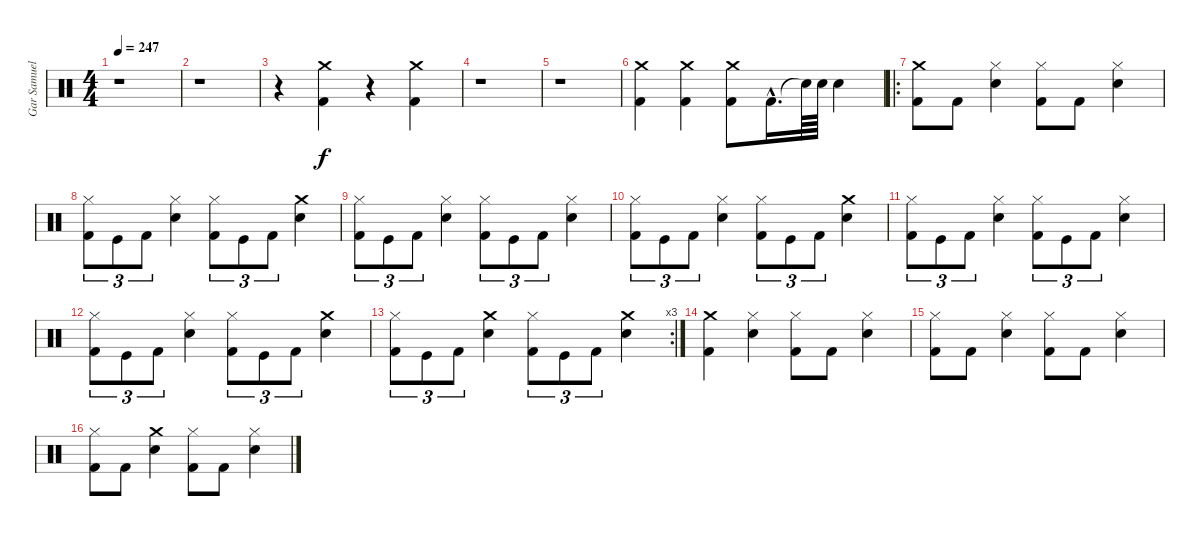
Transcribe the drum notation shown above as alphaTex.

\track ("Gar Samuelson (Drums)" "Gar Samuel") {instrument percussion}
\staff {score}
\articulation defaults
\ts (4 4)
\tempo 247
\clef neutral
\ks c
r.1{dy f} |
r.1 |
r.4 ("Kick (hit) 2" "Crash medium (hit)").4 r.4 ("Kick (hit) 2" "Crash medium (hit)").4 |
r.1 |
r.1 |
("Kick (hit) 2" "Crash medium (hit)").4 ("Kick (hit) 2" "Crash medium (hit)").4 ("Kick (hit) 2" "Crash medium (hit)").8 "Kick (hit) 2"{hac}.16{d} "Snare (hit)"{t}.64 "Snare (hit) 2".64 "Snare (hit) 2".4 |
\ro
("Crash medium (hit)" "Kick (hit) 2").8 "Kick (hit) 2".8 ("Hi-Hat (closed)" "Snare (hit) 2").4 ("Hi-Hat (closed)" "Kick (hit) 2").8 "Kick (hit) 2".8 ("Snare (hit) 2" "Hi-Hat (closed)").4 |
("Hi-Hat (closed)" "Kick (hit) 2").8{tu (3 2)} "Kick (hit)".8{tu (3 2)} "Kick (hit) 2".8{tu (3 2)} ("Snare (hit) 2" "Hi-Hat (closed)").4 ("Hi-Hat (closed)" "Kick (hit) 2").8{tu (3 2)} "Kick (hit)".8{tu (3 2)} "Kick (hit) 2".8{tu (3 2)} ("Crash medium (hit)" "Snare (hit) 2").4 |
("Hi-Hat (closed)" "Kick (hit) 2").8{tu (3 2)} "Kick (hit)".8{tu (3 2)} "Kick (hit) 2".8{tu (3 2)} ("Snare (hit) 2" "Hi-Hat (closed)").4 ("Hi-Hat (closed)" "Kick (hit) 2").8{tu (3 2)} "Kick (hit)".8{tu (3 2)} "Kick (hit) 2".8{tu (3 2)} ("Hi-Hat (closed)" "Snare (hit) 2").4 |
("Hi-Hat (closed)" "Kick (hit) 2").8{tu (3 2)} "Kick (hit)".8{tu (3 2)} "Kick (hit) 2".8{tu (3 2)} ("Snare (hit) 2" "Hi-Hat (closed)").4 ("Hi-Hat (closed)" "Kick (hit) 2").8{tu (3 2)} "Kick (hit)".8{tu (3 2)} "Kick (hit) 2".8{tu (3 2)} ("Crash medium (hit)" "Snare (hit) 2").4 |
("Hi-Hat (closed)" "Kick (hit) 2").8{tu (3 2)} "Kick (hit)".8{tu (3 2)} "Kick (hit) 2".8{tu (3 2)} ("Snare (hit) 2" "Hi-Hat (closed)").4 ("Hi-Hat (closed)" "Kick (hit) 2").8{tu (3 2)} "Kick (hit)".8{tu (3 2)} "Kick (hit) 2".8{tu (3 2)} ("Hi-Hat (closed)" "Snare (hit) 2").4 |
("Hi-Hat (closed)" "Kick (hit) 2").8{tu (3 2)} "Kick (hit)".8{tu (3 2)} "Kick (hit) 2".8{tu (3 2)} ("Snare (hit) 2" "Hi-Hat (closed)").4 ("Hi-Hat (closed)" "Kick (hit) 2").8{tu (3 2)} "Kick (hit)".8{tu (3 2)} "Kick (hit) 2".8{tu (3 2)} ("Crash medium (hit)" "Snare (hit) 2").4 |
\rc 3
("Hi-Hat (closed)" "Kick (hit) 2").8{tu (3 2)} "Kick (hit)".8{tu (3 2)} "Kick (hit) 2".8{tu (3 2)} ("Crash medium (hit)" "Snare (hit) 2").4 ("Hi-Hat (closed)" "Kick (hit) 2").8{tu (3 2)} "Kick (hit)".8{tu (3 2)} "Kick (hit) 2".8{tu (3 2)} ("Crash medium (hit)" "Snare (hit) 2").4 |
("Kick (hit) 2" "Crash medium (hit)").4 ("Hi-Hat (closed)" "Snare (hit) 2").4 ("Hi-Hat (closed)" "Kick (hit) 2").8 "Kick (hit) 2".8 ("Snare (hit) 2" "Hi-Hat (closed)").4 |
("Kick (hit) 2" "Hi-Hat (closed)").8 "Kick (hit) 2".8 ("Snare (hit) 2" "Hi-Hat (closed)").4 ("Kick (hit) 2" "Hi-Hat (closed)").8 "Kick (hit) 2".8 ("Snare (hit) 2" "Hi-Hat (closed)").4 |
("Kick (hit) 2" "Hi-Hat (closed)").8 "Kick (hit) 2".8 ("Crash medium (hit)" "Snare (hit) 2").4 ("Kick (hit) 2" "Hi-Hat (closed)").8 "Kick (hit) 2".8 ("Snare (hit) 2" "Hi-Hat (closed)").4
